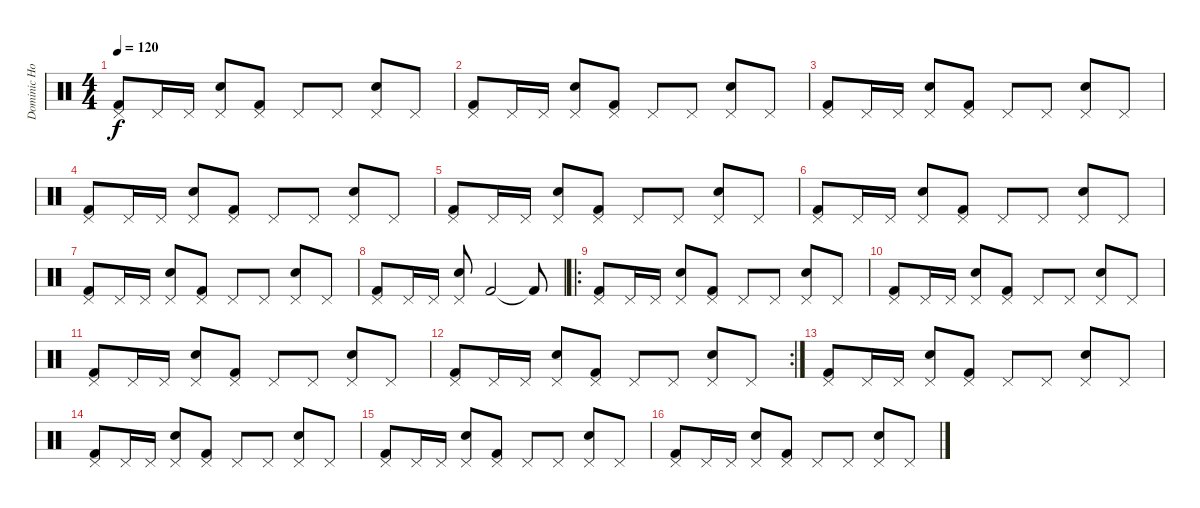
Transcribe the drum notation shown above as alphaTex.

\track ("Dominic Howard" "Dominic Ho") {instrument percussion}
\staff {score}
\articulation defaults
\ts (4 4)
\tempo 120
\clef neutral
\ks c
("Pedal Hi-Hat (hit)" "Kick (hit) 2").8{dy f} "Pedal Hi-Hat (hit)".16 "Pedal Hi-Hat (hit)".16 ("Pedal Hi-Hat (hit)" "Snare (hit) 2").8 ("Pedal Hi-Hat (hit)" "Kick (hit) 2").8 "Pedal Hi-Hat (hit)".8 "Pedal Hi-Hat (hit)".8 ("Pedal Hi-Hat (hit)" "Snare (hit) 2").8 "Pedal Hi-Hat (hit)".8 |
("Pedal Hi-Hat (hit)" "Kick (hit) 2").8 "Pedal Hi-Hat (hit)".16 "Pedal Hi-Hat (hit)".16 ("Pedal Hi-Hat (hit)" "Snare (hit) 2").8 ("Pedal Hi-Hat (hit)" "Kick (hit) 2").8 "Pedal Hi-Hat (hit)".8 "Pedal Hi-Hat (hit)".8 ("Pedal Hi-Hat (hit)" "Snare (hit) 2").8 "Pedal Hi-Hat (hit)".8 |
("Pedal Hi-Hat (hit)" "Kick (hit) 2").8 "Pedal Hi-Hat (hit)".16 "Pedal Hi-Hat (hit)".16 ("Pedal Hi-Hat (hit)" "Snare (hit) 2").8 ("Pedal Hi-Hat (hit)" "Kick (hit) 2").8 "Pedal Hi-Hat (hit)".8 "Pedal Hi-Hat (hit)".8 ("Pedal Hi-Hat (hit)" "Snare (hit) 2").8 "Pedal Hi-Hat (hit)".8 |
("Pedal Hi-Hat (hit)" "Kick (hit) 2").8 "Pedal Hi-Hat (hit)".16 "Pedal Hi-Hat (hit)".16 ("Pedal Hi-Hat (hit)" "Snare (hit) 2").8 ("Pedal Hi-Hat (hit)" "Kick (hit) 2").8 "Pedal Hi-Hat (hit)".8 "Pedal Hi-Hat (hit)".8 ("Pedal Hi-Hat (hit)" "Snare (hit) 2").8 "Pedal Hi-Hat (hit)".8 |
("Pedal Hi-Hat (hit)" "Kick (hit) 2").8 "Pedal Hi-Hat (hit)".16 "Pedal Hi-Hat (hit)".16 ("Pedal Hi-Hat (hit)" "Snare (hit) 2").8 ("Pedal Hi-Hat (hit)" "Kick (hit) 2").8 "Pedal Hi-Hat (hit)".8 "Pedal Hi-Hat (hit)".8 ("Pedal Hi-Hat (hit)" "Snare (hit) 2").8 "Pedal Hi-Hat (hit)".8 |
("Pedal Hi-Hat (hit)" "Kick (hit) 2").8 "Pedal Hi-Hat (hit)".16 "Pedal Hi-Hat (hit)".16 ("Pedal Hi-Hat (hit)" "Snare (hit) 2").8 ("Pedal Hi-Hat (hit)" "Kick (hit) 2").8 "Pedal Hi-Hat (hit)".8 "Pedal Hi-Hat (hit)".8 ("Pedal Hi-Hat (hit)" "Snare (hit) 2").8 "Pedal Hi-Hat (hit)".8 |
("Pedal Hi-Hat (hit)" "Kick (hit) 2").8 "Pedal Hi-Hat (hit)".16 "Pedal Hi-Hat (hit)".16 ("Pedal Hi-Hat (hit)" "Snare (hit) 2").8 ("Pedal Hi-Hat (hit)" "Kick (hit) 2").8 "Pedal Hi-Hat (hit)".8 "Pedal Hi-Hat (hit)".8 ("Pedal Hi-Hat (hit)" "Snare (hit) 2").8 "Pedal Hi-Hat (hit)".8 |
("Pedal Hi-Hat (hit)" "Kick (hit) 2").8 "Pedal Hi-Hat (hit)".16 "Pedal Hi-Hat (hit)".16 ("Pedal Hi-Hat (hit)" "Snare (hit) 2").8 "Kick (hit) 2".2 "Kick (hit) 2"{t}.8 |
\ro
("Pedal Hi-Hat (hit)" "Kick (hit) 2").8 "Pedal Hi-Hat (hit)".16 "Pedal Hi-Hat (hit)".16 ("Pedal Hi-Hat (hit)" "Snare (hit) 2").8 ("Pedal Hi-Hat (hit)" "Kick (hit) 2").8 "Pedal Hi-Hat (hit)".8 "Pedal Hi-Hat (hit)".8 ("Pedal Hi-Hat (hit)" "Snare (hit) 2").8 "Pedal Hi-Hat (hit)".8 |
("Pedal Hi-Hat (hit)" "Kick (hit) 2").8 "Pedal Hi-Hat (hit)".16 "Pedal Hi-Hat (hit)".16 ("Pedal Hi-Hat (hit)" "Snare (hit) 2").8 ("Pedal Hi-Hat (hit)" "Kick (hit) 2").8 "Pedal Hi-Hat (hit)".8 "Pedal Hi-Hat (hit)".8 ("Pedal Hi-Hat (hit)" "Snare (hit) 2").8 "Pedal Hi-Hat (hit)".8 |
("Pedal Hi-Hat (hit)" "Kick (hit) 2").8 "Pedal Hi-Hat (hit)".16 "Pedal Hi-Hat (hit)".16 ("Pedal Hi-Hat (hit)" "Snare (hit) 2").8 ("Pedal Hi-Hat (hit)" "Kick (hit) 2").8 "Pedal Hi-Hat (hit)".8 "Pedal Hi-Hat (hit)".8 ("Pedal Hi-Hat (hit)" "Snare (hit) 2").8 "Pedal Hi-Hat (hit)".8 |
\rc 2
("Pedal Hi-Hat (hit)" "Kick (hit) 2").8 "Pedal Hi-Hat (hit)".16 "Pedal Hi-Hat (hit)".16 ("Pedal Hi-Hat (hit)" "Snare (hit) 2").8 ("Pedal Hi-Hat (hit)" "Kick (hit) 2").8 "Pedal Hi-Hat (hit)".8 "Pedal Hi-Hat (hit)".8 ("Pedal Hi-Hat (hit)" "Snare (hit) 2").8 "Pedal Hi-Hat (hit)".8 |
("Pedal Hi-Hat (hit)" "Kick (hit) 2").8 "Pedal Hi-Hat (hit)".16 "Pedal Hi-Hat (hit)".16 ("Pedal Hi-Hat (hit)" "Snare (hit) 2").8 ("Pedal Hi-Hat (hit)" "Kick (hit) 2").8 "Pedal Hi-Hat (hit)".8 "Pedal Hi-Hat (hit)".8 ("Pedal Hi-Hat (hit)" "Snare (hit) 2").8 "Pedal Hi-Hat (hit)".8 |
("Pedal Hi-Hat (hit)" "Kick (hit) 2").8 "Pedal Hi-Hat (hit)".16 "Pedal Hi-Hat (hit)".16 ("Pedal Hi-Hat (hit)" "Snare (hit) 2").8 ("Pedal Hi-Hat (hit)" "Kick (hit) 2").8 "Pedal Hi-Hat (hit)".8 "Pedal Hi-Hat (hit)".8 ("Pedal Hi-Hat (hit)" "Snare (hit) 2").8 "Pedal Hi-Hat (hit)".8 |
("Pedal Hi-Hat (hit)" "Kick (hit) 2").8 "Pedal Hi-Hat (hit)".16 "Pedal Hi-Hat (hit)".16 ("Pedal Hi-Hat (hit)" "Snare (hit) 2").8 ("Pedal Hi-Hat (hit)" "Kick (hit) 2").8 "Pedal Hi-Hat (hit)".8 "Pedal Hi-Hat (hit)".8 ("Pedal Hi-Hat (hit)" "Snare (hit) 2").8 "Pedal Hi-Hat (hit)".8 |
("Pedal Hi-Hat (hit)" "Kick (hit) 2").8 "Pedal Hi-Hat (hit)".16 "Pedal Hi-Hat (hit)".16 ("Pedal Hi-Hat (hit)" "Snare (hit) 2").8 ("Pedal Hi-Hat (hit)" "Kick (hit) 2").8 "Pedal Hi-Hat (hit)".8 "Pedal Hi-Hat (hit)".8 ("Pedal Hi-Hat (hit)" "Snare (hit) 2").8 "Pedal Hi-Hat (hit)".8
